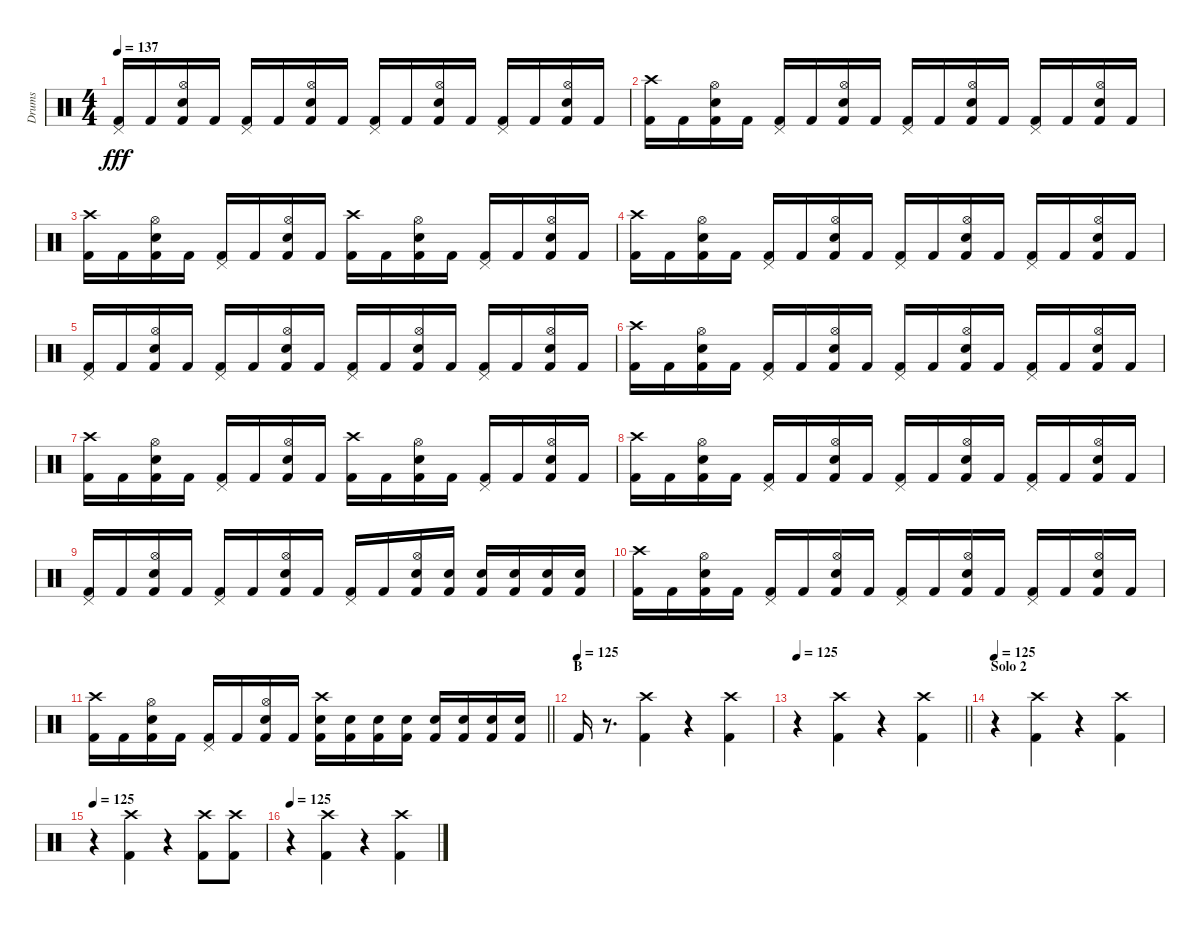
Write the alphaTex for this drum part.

\track ("Drums" "Drums") {instrument percussion}
\staff {score}
\articulation defaults
\ts (4 4)
\tempo 137
\clef neutral
\ks c
("Pedal Hi-Hat (hit)" "Kick (hit) 2").16{dy fff} "Kick (hit) 2".16 ("Hi-Hat (open)" "Electric Snare (hit)" "Kick (hit) 2").16 "Kick (hit) 2".16 ("Pedal Hi-Hat (hit)" "Kick (hit) 2").16 "Kick (hit) 2".16 ("Hi-Hat (open)" "Electric Snare (hit)" "Kick (hit) 2").16 "Kick (hit) 2".16 ("Pedal Hi-Hat (hit)" "Kick (hit) 2").16 "Kick (hit) 2".16 ("Hi-Hat (open)" "Electric Snare (hit)" "Kick (hit) 2").16 "Kick (hit) 2".16 ("Pedal Hi-Hat (hit)" "Kick (hit) 2").16 "Kick (hit) 2".16 ("Hi-Hat (open)" "Electric Snare (hit)" "Kick (hit) 2").16 "Kick (hit) 2".16 |
("Crash high (hit)" "Kick (hit) 2").16 "Kick (hit) 2".16 ("Hi-Hat (open)" "Electric Snare (hit)" "Kick (hit) 2").16 "Kick (hit) 2".16 ("Pedal Hi-Hat (hit)" "Kick (hit) 2").16 "Kick (hit) 2".16 ("Hi-Hat (open)" "Electric Snare (hit)" "Kick (hit) 2").16 "Kick (hit) 2".16 ("Pedal Hi-Hat (hit)" "Kick (hit) 2").16 "Kick (hit) 2".16 ("Hi-Hat (open)" "Electric Snare (hit)" "Kick (hit) 2").16 "Kick (hit) 2".16 ("Pedal Hi-Hat (hit)" "Kick (hit) 2").16 "Kick (hit) 2".16 ("Hi-Hat (open)" "Electric Snare (hit)" "Kick (hit) 2").16 "Kick (hit) 2".16 |
("Crash high (hit)" "Kick (hit) 2").16 "Kick (hit) 2".16 ("Hi-Hat (open)" "Electric Snare (hit)" "Kick (hit) 2").16 "Kick (hit) 2".16 ("Pedal Hi-Hat (hit)" "Kick (hit) 2").16 "Kick (hit) 2".16 ("Hi-Hat (open)" "Electric Snare (hit)" "Kick (hit) 2").16 "Kick (hit) 2".16 ("Crash high (hit)" "Kick (hit) 2").16 "Kick (hit) 2".16 ("Hi-Hat (open)" "Electric Snare (hit)" "Kick (hit) 2").16 "Kick (hit) 2".16 ("Pedal Hi-Hat (hit)" "Kick (hit) 2").16 "Kick (hit) 2".16 ("Hi-Hat (open)" "Electric Snare (hit)" "Kick (hit) 2").16 "Kick (hit) 2".16 |
("Crash high (hit)" "Kick (hit) 2").16 "Kick (hit) 2".16 ("Hi-Hat (open)" "Electric Snare (hit)" "Kick (hit) 2").16 "Kick (hit) 2".16 ("Pedal Hi-Hat (hit)" "Kick (hit) 2").16 "Kick (hit) 2".16 ("Hi-Hat (open)" "Electric Snare (hit)" "Kick (hit) 2").16 "Kick (hit) 2".16 ("Pedal Hi-Hat (hit)" "Kick (hit) 2").16 "Kick (hit) 2".16 ("Hi-Hat (open)" "Electric Snare (hit)" "Kick (hit) 2").16 "Kick (hit) 2".16 ("Pedal Hi-Hat (hit)" "Kick (hit) 2").16 "Kick (hit) 2".16 ("Hi-Hat (open)" "Electric Snare (hit)" "Kick (hit) 2").16 "Kick (hit) 2".16 |
("Pedal Hi-Hat (hit)" "Kick (hit) 2").16 "Kick (hit) 2".16 ("Hi-Hat (open)" "Electric Snare (hit)" "Kick (hit) 2").16 "Kick (hit) 2".16 ("Pedal Hi-Hat (hit)" "Kick (hit) 2").16 "Kick (hit) 2".16 ("Hi-Hat (open)" "Electric Snare (hit)" "Kick (hit) 2").16 "Kick (hit) 2".16 ("Pedal Hi-Hat (hit)" "Kick (hit) 2").16 "Kick (hit) 2".16 ("Hi-Hat (open)" "Electric Snare (hit)" "Kick (hit) 2").16 "Kick (hit) 2".16 ("Pedal Hi-Hat (hit)" "Kick (hit) 2").16 "Kick (hit) 2".16 ("Hi-Hat (open)" "Electric Snare (hit)" "Kick (hit) 2").16 "Kick (hit) 2".16 |
("Crash high (hit)" "Kick (hit) 2").16 "Kick (hit) 2".16 ("Hi-Hat (open)" "Electric Snare (hit)" "Kick (hit) 2").16 "Kick (hit) 2".16 ("Pedal Hi-Hat (hit)" "Kick (hit) 2").16 "Kick (hit) 2".16 ("Hi-Hat (open)" "Electric Snare (hit)" "Kick (hit) 2").16 "Kick (hit) 2".16 ("Pedal Hi-Hat (hit)" "Kick (hit) 2").16 "Kick (hit) 2".16 ("Hi-Hat (open)" "Electric Snare (hit)" "Kick (hit) 2").16 "Kick (hit) 2".16 ("Pedal Hi-Hat (hit)" "Kick (hit) 2").16 "Kick (hit) 2".16 ("Hi-Hat (open)" "Electric Snare (hit)" "Kick (hit) 2").16 "Kick (hit) 2".16 |
("Crash high (hit)" "Kick (hit) 2").16 "Kick (hit) 2".16 ("Hi-Hat (open)" "Electric Snare (hit)" "Kick (hit) 2").16 "Kick (hit) 2".16 ("Pedal Hi-Hat (hit)" "Kick (hit) 2").16 "Kick (hit) 2".16 ("Hi-Hat (open)" "Electric Snare (hit)" "Kick (hit) 2").16 "Kick (hit) 2".16 ("Crash high (hit)" "Kick (hit) 2").16 "Kick (hit) 2".16 ("Hi-Hat (open)" "Electric Snare (hit)" "Kick (hit) 2").16 "Kick (hit) 2".16 ("Pedal Hi-Hat (hit)" "Kick (hit) 2").16 "Kick (hit) 2".16 ("Hi-Hat (open)" "Electric Snare (hit)" "Kick (hit) 2").16 "Kick (hit) 2".16 |
("Crash high (hit)" "Kick (hit) 2").16 "Kick (hit) 2".16 ("Hi-Hat (open)" "Electric Snare (hit)" "Kick (hit) 2").16 "Kick (hit) 2".16 ("Pedal Hi-Hat (hit)" "Kick (hit) 2").16 "Kick (hit) 2".16 ("Hi-Hat (open)" "Electric Snare (hit)" "Kick (hit) 2").16 "Kick (hit) 2".16 ("Pedal Hi-Hat (hit)" "Kick (hit) 2").16 "Kick (hit) 2".16 ("Hi-Hat (open)" "Electric Snare (hit)" "Kick (hit) 2").16 "Kick (hit) 2".16 ("Pedal Hi-Hat (hit)" "Kick (hit) 2").16 "Kick (hit) 2".16 ("Hi-Hat (open)" "Electric Snare (hit)" "Kick (hit) 2").16 "Kick (hit) 2".16 |
("Pedal Hi-Hat (hit)" "Kick (hit) 2").16 "Kick (hit) 2".16 ("Hi-Hat (open)" "Electric Snare (hit)" "Kick (hit) 2").16 "Kick (hit) 2".16 ("Pedal Hi-Hat (hit)" "Kick (hit) 2").16 "Kick (hit) 2".16 ("Hi-Hat (open)" "Electric Snare (hit)" "Kick (hit) 2").16 "Kick (hit) 2".16 ("Pedal Hi-Hat (hit)" "Kick (hit) 2").16 "Kick (hit) 2".16 ("Hi-Hat (open)" "Electric Snare (hit)" "Kick (hit) 2").16 ("Electric Snare (hit)" "Kick (hit) 2").16 ("Electric Snare (hit)" "Kick (hit) 2").16 ("Electric Snare (hit)" "Kick (hit) 2").16 ("Electric Snare (hit)" "Kick (hit) 2").16 ("Electric Snare (hit)" "Kick (hit) 2").16 |
("Crash high (hit)" "Kick (hit) 2").16 "Kick (hit) 2".16 ("Hi-Hat (open)" "Electric Snare (hit)" "Kick (hit) 2").16 "Kick (hit) 2".16 ("Pedal Hi-Hat (hit)" "Kick (hit) 2").16 "Kick (hit) 2".16 ("Hi-Hat (open)" "Electric Snare (hit)" "Kick (hit) 2").16 "Kick (hit) 2".16 ("Pedal Hi-Hat (hit)" "Kick (hit) 2").16 "Kick (hit) 2".16 ("Hi-Hat (open)" "Electric Snare (hit)" "Kick (hit) 2").16 "Kick (hit) 2".16 ("Pedal Hi-Hat (hit)" "Kick (hit) 2").16 "Kick (hit) 2".16 ("Hi-Hat (open)" "Electric Snare (hit)" "Kick (hit) 2").16 "Kick (hit) 2".16 |
\barLineRight lightlight
("Crash high (hit)" "Kick (hit) 2").16 "Kick (hit) 2".16 ("Hi-Hat (open)" "Electric Snare (hit)" "Kick (hit) 2").16 "Kick (hit) 2".16 ("Pedal Hi-Hat (hit)" "Kick (hit) 2").16 "Kick (hit) 2".16 ("Hi-Hat (open)" "Electric Snare (hit)" "Kick (hit) 2").16 "Kick (hit) 2".16 ("Crash high (hit)" "Electric Snare (hit)" "Kick (hit) 2").16 ("Electric Snare (hit)" "Kick (hit) 2").16 ("Electric Snare (hit)" "Kick (hit) 2").16 ("Electric Snare (hit)" "Kick (hit) 2").16 ("Electric Snare (hit)" "Kick (hit) 2").16 ("Electric Snare (hit)" "Kick (hit) 2").16 ("Electric Snare (hit)" "Kick (hit) 2").16 ("Electric Snare (hit)" "Kick (hit) 2").16 |
\section ("" "B")
\tempo (125)
"Kick (hit) 2".16 r.8{d} ("Crash high (hit)" "Kick (hit) 2").4 r.4 ("Crash high (hit)" "Kick (hit) 2").4 |
\tempo 125
\barLineRight lightlight
r.4 ("Crash high (hit)" "Kick (hit) 2").4 r.4 ("Crash high (hit)" "Kick (hit) 2").4 |
\section ("" "Solo 2")
\tempo 125
r.4 ("Crash high (hit)" "Kick (hit) 2").4 r.4 ("Crash high (hit)" "Kick (hit) 2").4 |
\tempo 125
r.4 ("Crash high (hit)" "Kick (hit) 2").4 r.4 ("Crash high (hit)" "Kick (hit) 2").8 ("Crash high (hit)" "Kick (hit) 2").8 |
\tempo 125
r.4 ("Crash high (hit)" "Kick (hit) 2").4 r.4 ("Crash high (hit)" "Kick (hit) 2").4
